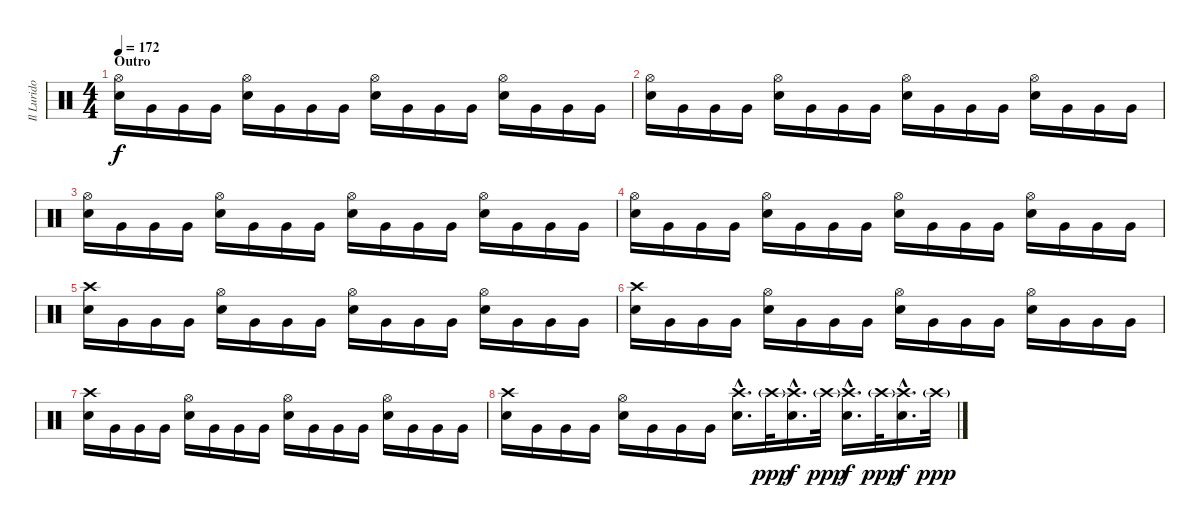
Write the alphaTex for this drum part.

\track ("Il Lurido Cavernicolo (Drums)" "Il Lurido ") {instrument percussion}
\staff {score}
\articulation defaults
\ts (4 4)
\section ("" "Outro")
\tempo 172
\clef neutral
\ks c
("Hi-Hat (open)" "Electric Snare (hit)").16{dy f} "Very Low Tom (hit)".16 "Very Low Tom (hit)".16 "Very Low Tom (hit)".16 ("Hi-Hat (open)" "Electric Snare (hit)").16 "Very Low Tom (hit)".16 "Very Low Tom (hit)".16 "Very Low Tom (hit)".16 ("Hi-Hat (open)" "Electric Snare (hit)").16 "Very Low Tom (hit)".16 "Very Low Tom (hit)".16 "Very Low Tom (hit)".16 ("Hi-Hat (open)" "Electric Snare (hit)").16 "Very Low Tom (hit)".16 "Very Low Tom (hit)".16 "Very Low Tom (hit)".16 |
("Hi-Hat (open)" "Electric Snare (hit)").16 "Very Low Tom (hit)".16 "Very Low Tom (hit)".16 "Very Low Tom (hit)".16 ("Hi-Hat (open)" "Electric Snare (hit)").16 "Very Low Tom (hit)".16 "Very Low Tom (hit)".16 "Very Low Tom (hit)".16 ("Hi-Hat (open)" "Electric Snare (hit)").16 "Very Low Tom (hit)".16 "Very Low Tom (hit)".16 "Very Low Tom (hit)".16 ("Hi-Hat (open)" "Electric Snare (hit)").16 "Very Low Tom (hit)".16 "Very Low Tom (hit)".16 "Very Low Tom (hit)".16 |
("Hi-Hat (open)" "Electric Snare (hit)").16 "Very Low Tom (hit)".16 "Very Low Tom (hit)".16 "Very Low Tom (hit)".16 ("Hi-Hat (open)" "Electric Snare (hit)").16 "Very Low Tom (hit)".16 "Very Low Tom (hit)".16 "Very Low Tom (hit)".16 ("Hi-Hat (open)" "Electric Snare (hit)").16 "Very Low Tom (hit)".16 "Very Low Tom (hit)".16 "Very Low Tom (hit)".16 ("Hi-Hat (open)" "Electric Snare (hit)").16 "Very Low Tom (hit)".16 "Very Low Tom (hit)".16 "Very Low Tom (hit)".16 |
("Hi-Hat (open)" "Electric Snare (hit)").16 "Very Low Tom (hit)".16 "Very Low Tom (hit)".16 "Very Low Tom (hit)".16 ("Hi-Hat (open)" "Electric Snare (hit)").16 "Very Low Tom (hit)".16 "Very Low Tom (hit)".16 "Very Low Tom (hit)".16 ("Hi-Hat (open)" "Electric Snare (hit)").16 "Very Low Tom (hit)".16 "Very Low Tom (hit)".16 "Very Low Tom (hit)".16 ("Hi-Hat (open)" "Electric Snare (hit)").16 "Very Low Tom (hit)".16 "Very Low Tom (hit)".16 "Very Low Tom (hit)".16 |
("Crash high (hit)" "Electric Snare (hit)").16 "Very Low Tom (hit)".16 "Very Low Tom (hit)".16 "Very Low Tom (hit)".16 ("Hi-Hat (open)" "Electric Snare (hit)").16 "Very Low Tom (hit)".16 "Very Low Tom (hit)".16 "Very Low Tom (hit)".16 ("Hi-Hat (open)" "Electric Snare (hit)").16 "Very Low Tom (hit)".16 "Very Low Tom (hit)".16 "Very Low Tom (hit)".16 ("Hi-Hat (open)" "Electric Snare (hit)").16 "Very Low Tom (hit)".16 "Very Low Tom (hit)".16 "Very Low Tom (hit)".16 |
("Crash high (hit)" "Electric Snare (hit)").16 "Very Low Tom (hit)".16 "Very Low Tom (hit)".16 "Very Low Tom (hit)".16 ("Hi-Hat (open)" "Electric Snare (hit)").16 "Very Low Tom (hit)".16 "Very Low Tom (hit)".16 "Very Low Tom (hit)".16 ("Hi-Hat (open)" "Electric Snare (hit)").16 "Very Low Tom (hit)".16 "Very Low Tom (hit)".16 "Very Low Tom (hit)".16 ("Hi-Hat (open)" "Electric Snare (hit)").16 "Very Low Tom (hit)".16 "Very Low Tom (hit)".16 "Very Low Tom (hit)".16 |
("Crash high (hit)" "Electric Snare (hit)").16 "Very Low Tom (hit)".16 "Very Low Tom (hit)".16 "Very Low Tom (hit)".16 ("Hi-Hat (open)" "Electric Snare (hit)").16 "Very Low Tom (hit)".16 "Very Low Tom (hit)".16 "Very Low Tom (hit)".16 ("Hi-Hat (open)" "Electric Snare (hit)").16 "Very Low Tom (hit)".16 "Very Low Tom (hit)".16 "Very Low Tom (hit)".16 ("Hi-Hat (open)" "Electric Snare (hit)").16 "Very Low Tom (hit)".16 "Very Low Tom (hit)".16 "Very Low Tom (hit)".16 |
("Crash high (hit)" "Electric Snare (hit)").16 "Very Low Tom (hit)".16 "Very Low Tom (hit)".16 "Very Low Tom (hit)".16 ("Hi-Hat (open)" "Electric Snare (hit)").16 "Very Low Tom (hit)".16 "Very Low Tom (hit)".16 "Very Low Tom (hit)".16 ("Crash high (hit)"{hac} "Electric Snare (hit)"{hac}).16{d} "Crash high (hit)"{g}.32{dy ppp} ("Crash high (hit)"{hac} "Electric Snare (hit)"{hac}).16{d dy f} "Crash high (hit)"{g}.32{dy ppp} ("Crash high (hit)"{hac} "Electric Snare (hit)"{hac}).16{d dy f} "Crash high (hit)"{g}.32{dy ppp} ("Crash high (hit)"{hac} "Electric Snare (hit)"{hac}).16{d dy f} "Crash high (hit)"{g}.32{dy ppp}
